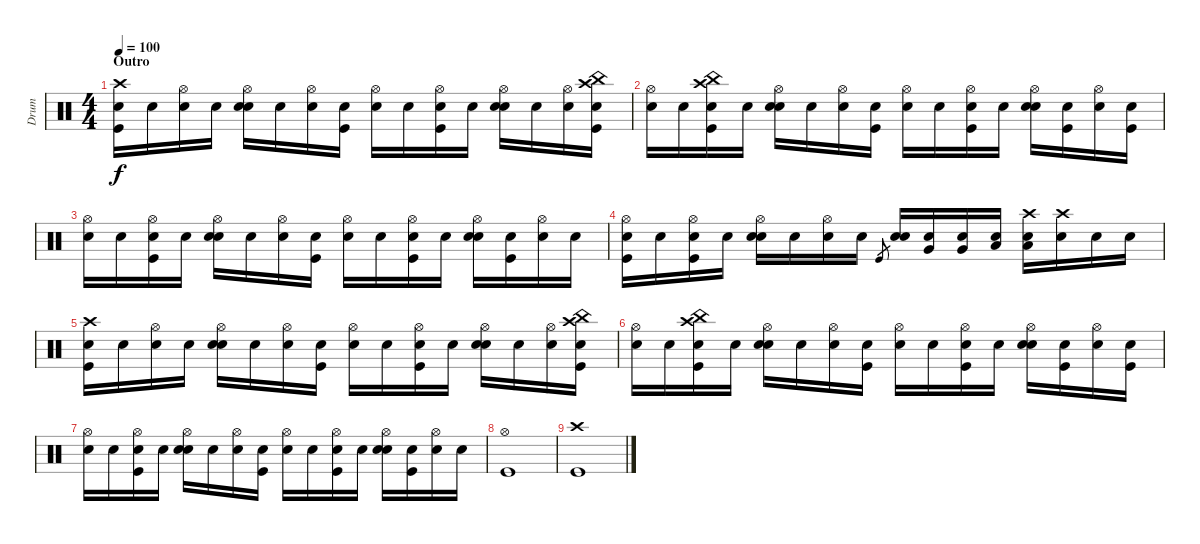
\track ("Drum" "Drum") {instrument percussion}
\staff {score}
\articulation defaults
\ts (4 4)
\section ("" "Outro")
\tempo 100
\clef neutral
\ks c
("Kick (hit)" "Crash high (hit)" "Snare (hit)"{x}).16{dy f} "Snare (hit)"{x}.16 ("Hi-Hat (open)" "Snare (hit)"{x}).16 "Snare (hit)"{x}.16 ("Snare (hit) 2" "Hi-Hat (open)" "Snare (hit)"{x}).16 "Snare (hit)"{x}.16 ("Hi-Hat (open)" "Snare (hit)"{x}).16 ("Kick (hit)" "Snare (hit)"{x}).16 ("Hi-Hat (open)" "Snare (hit)"{x}).16 "Snare (hit)"{x}.16 ("Kick (hit)" "Hi-Hat (open)" "Snare (hit)"{x}).16 "Snare (hit)"{x}.16 ("Snare (hit) 2" "Hi-Hat (open)" "Snare (hit)"{x}).16 "Snare (hit)"{x}.16 ("Hi-Hat (open)" "Snare (hit)"{x}).16 ("Crash high (hit)" "Kick (hit)" "China (hit)" "Snare (hit)"{x}).16 |
("Hi-Hat (open)" "Snare (hit)"{x}).16 "Snare (hit)"{x}.16 ("Crash high (hit)" "Kick (hit)" "China (hit)" "Snare (hit)"{x}).16 "Snare (hit)"{x}.16 ("Snare (hit) 2" "Hi-Hat (open)" "Snare (hit)"{x}).16 "Snare (hit)"{x}.16 ("Hi-Hat (open)" "Snare (hit)"{x}).16 ("Kick (hit)" "Snare (hit)"{x}).16 ("Hi-Hat (open)" "Snare (hit)"{x}).16 "Snare (hit)"{x}.16 ("Kick (hit)" "Hi-Hat (open)" "Snare (hit)"{x}).16 "Snare (hit)"{x}.16 ("Snare (hit) 2" "Hi-Hat (open)" "Snare (hit)"{x}).16 ("Kick (hit)" "Snare (hit)"{x}).16 ("Hi-Hat (open)" "Snare (hit)"{x}).16 ("Kick (hit)" "Snare (hit)"{x}).16 |
("Hi-Hat (open)" "Snare (hit)"{x}).16 "Snare (hit)"{x}.16 ("Kick (hit)" "Hi-Hat (open)" "Snare (hit)"{x}).16 "Snare (hit)"{x}.16 ("Snare (hit) 2" "Hi-Hat (open)" "Snare (hit)"{x}).16 "Snare (hit)"{x}.16 ("Hi-Hat (open)" "Snare (hit)"{x}).16 ("Kick (hit)" "Snare (hit)"{x}).16 ("Hi-Hat (open)" "Snare (hit)"{x}).16 "Snare (hit)"{x}.16 ("Kick (hit)" "Hi-Hat (open)" "Snare (hit)"{x}).16 "Snare (hit)"{x}.16 ("Snare (hit) 2" "Hi-Hat (open)" "Snare (hit)"{x}).16 ("Kick (hit)" "Snare (hit)"{x}).16 ("Hi-Hat (open)" "Snare (hit)"{x}).16 "Snare (hit)"{x}.16 |
("Kick (hit)" "Hi-Hat (open)" "Snare (hit)"{x}).16 "Snare (hit)"{x}.16 ("Kick (hit)" "Hi-Hat (open)" "Snare (hit)"{x}).16 "Snare (hit)"{x}.16 ("Snare (hit) 2" "Hi-Hat (open)" "Snare (hit)"{x}).16 "Snare (hit)"{x}.16 ("Hi-Hat (open)" "Snare (hit)"{x}).16 "Snare (hit)"{x}.16 "Kick (hit)".8{gr} ("Snare (hit) 2" "Snare (hit)"{x}).16 ("Very Low Tom (hit)" "Snare (hit)"{x}).16 ("Very Low Tom (hit)" "Snare (hit)"{x}).16 ("Low Floor Tom (hit)" "Snare (hit)"{x}).16 ("Low Floor Tom (hit)" "Crash high (hit)" "Snare (hit)"{x}).16 ("Crash high (hit)" "Snare (hit)"{x}).16 "Snare (hit)"{x}.16 "Snare (hit)"{x}.16 |
("Kick (hit)" "Crash high (hit)" "Snare (hit)"{x}).16 "Snare (hit)"{x}.16 ("Hi-Hat (open)" "Snare (hit)"{x}).16 "Snare (hit)"{x}.16 ("Snare (hit) 2" "Hi-Hat (open)" "Snare (hit)"{x}).16 "Snare (hit)"{x}.16 ("Hi-Hat (open)" "Snare (hit)"{x}).16 ("Kick (hit)" "Snare (hit)"{x}).16 ("Hi-Hat (open)" "Snare (hit)"{x}).16 "Snare (hit)"{x}.16 ("Kick (hit)" "Hi-Hat (open)" "Snare (hit)"{x}).16 "Snare (hit)"{x}.16 ("Snare (hit) 2" "Hi-Hat (open)" "Snare (hit)"{x}).16 "Snare (hit)"{x}.16 ("Hi-Hat (open)" "Snare (hit)"{x}).16 ("Crash high (hit)" "Kick (hit)" "China (hit)" "Snare (hit)"{x}).16 |
("Hi-Hat (open)" "Snare (hit)"{x}).16 "Snare (hit)"{x}.16 ("Crash high (hit)" "Kick (hit)" "China (hit)" "Snare (hit)"{x}).16 "Snare (hit)"{x}.16 ("Snare (hit) 2" "Hi-Hat (open)" "Snare (hit)"{x}).16 "Snare (hit)"{x}.16 ("Hi-Hat (open)" "Snare (hit)"{x}).16 ("Kick (hit)" "Snare (hit)"{x}).16 ("Hi-Hat (open)" "Snare (hit)"{x}).16 "Snare (hit)"{x}.16 ("Kick (hit)" "Hi-Hat (open)" "Snare (hit)"{x}).16 "Snare (hit)"{x}.16 ("Snare (hit) 2" "Hi-Hat (open)" "Snare (hit)"{x}).16 ("Kick (hit)" "Snare (hit)"{x}).16 ("Hi-Hat (open)" "Snare (hit)"{x}).16 ("Kick (hit)" "Snare (hit)"{x}).16 |
("Hi-Hat (open)" "Snare (hit)"{x}).16 "Snare (hit)"{x}.16 ("Kick (hit)" "Hi-Hat (open)" "Snare (hit)"{x}).16 "Snare (hit)"{x}.16 ("Snare (hit) 2" "Hi-Hat (open)" "Snare (hit)"{x}).16 "Snare (hit)"{x}.16 ("Hi-Hat (open)" "Snare (hit)"{x}).16 ("Kick (hit)" "Snare (hit)"{x}).16 ("Hi-Hat (open)" "Snare (hit)"{x}).16 "Snare (hit)"{x}.16 ("Kick (hit)" "Hi-Hat (open)" "Snare (hit)"{x}).16 "Snare (hit)"{x}.16 ("Snare (hit) 2" "Hi-Hat (open)" "Snare (hit)"{x}).16 ("Kick (hit)" "Snare (hit)"{x}).16 ("Hi-Hat (open)" "Snare (hit)"{x}).16 "Snare (hit)"{x}.16 |
("Kick (hit)" "Hi-Hat (open)").1 |
("Kick (hit)" "Crash high (hit)").1
